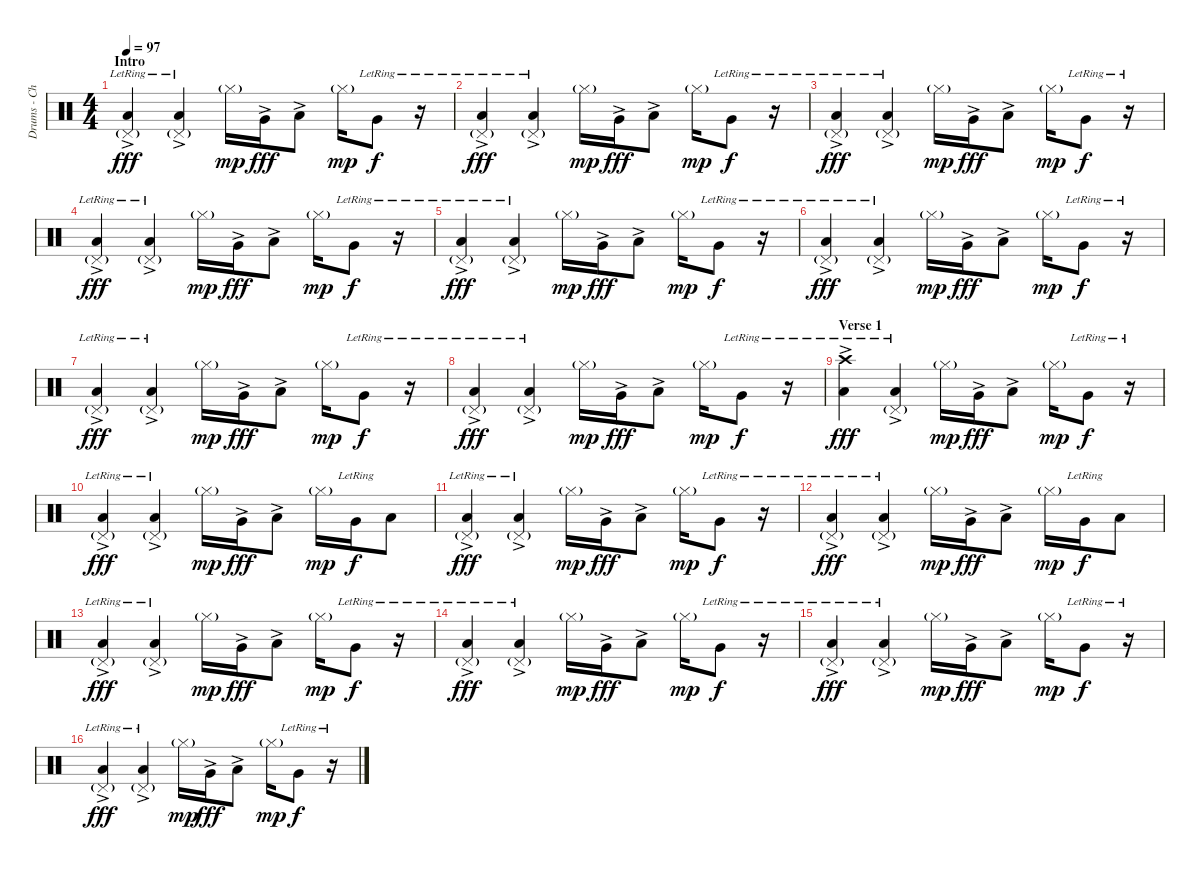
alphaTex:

\track ("Drums - Chad S" "Drums - Ch") {instrument percussion}
\staff {score}
\articulation defaults
\ts (4 4)
\section ("" "Intro")
\tempo 97
\clef neutral
\ks c
("Pedal Hi-Hat (hit)"{g} "Low Floor Tom (hit)"{ac lr}).4{dy fff} ("Pedal Hi-Hat (hit)"{g} "Low Floor Tom (hit)"{ac lr}).4 "Hi-Hat (closed)"{g}.16{dy mp} "Very Low Tom (hit)"{ac}.16{dy fff} "Low Floor Tom (hit)"{ac}.8 "Hi-Hat (closed)"{g}.16{dy mp} "Very Low Tom (hit)"{lr}.8{dy f} r.16 |
("Pedal Hi-Hat (hit)"{g} "Low Floor Tom (hit)"{ac lr}).4{dy fff} ("Pedal Hi-Hat (hit)"{g} "Low Floor Tom (hit)"{ac lr}).4 "Hi-Hat (closed)"{g}.16{dy mp} "Very Low Tom (hit)"{ac}.16{dy fff} "Low Floor Tom (hit)"{ac}.8 "Hi-Hat (closed)"{g}.16{dy mp} "Very Low Tom (hit)"{lr}.8{dy f} r.16 |
("Pedal Hi-Hat (hit)"{g} "Low Floor Tom (hit)"{ac lr}).4{dy fff} ("Pedal Hi-Hat (hit)"{g} "Low Floor Tom (hit)"{ac lr}).4 "Hi-Hat (closed)"{g}.16{dy mp} "Very Low Tom (hit)"{ac}.16{dy fff} "Low Floor Tom (hit)"{ac}.8 "Hi-Hat (closed)"{g}.16{dy mp} "Very Low Tom (hit)"{lr}.8{dy f} r.16 |
("Pedal Hi-Hat (hit)"{g} "Low Floor Tom (hit)"{ac lr}).4{dy fff} ("Pedal Hi-Hat (hit)"{g} "Low Floor Tom (hit)"{ac lr}).4 "Hi-Hat (closed)"{g}.16{dy mp} "Very Low Tom (hit)"{ac}.16{dy fff} "Low Floor Tom (hit)"{ac}.8 "Hi-Hat (closed)"{g}.16{dy mp} "Very Low Tom (hit)"{lr}.8{dy f} r.16 |
("Pedal Hi-Hat (hit)"{g} "Low Floor Tom (hit)"{ac lr}).4{dy fff} ("Pedal Hi-Hat (hit)"{g} "Low Floor Tom (hit)"{ac lr}).4 "Hi-Hat (closed)"{g}.16{dy mp} "Very Low Tom (hit)"{ac}.16{dy fff} "Low Floor Tom (hit)"{ac}.8 "Hi-Hat (closed)"{g}.16{dy mp} "Very Low Tom (hit)"{lr}.8{dy f} r.16 |
("Pedal Hi-Hat (hit)"{g} "Low Floor Tom (hit)"{ac lr}).4{dy fff} ("Pedal Hi-Hat (hit)"{g} "Low Floor Tom (hit)"{ac lr}).4 "Hi-Hat (closed)"{g}.16{dy mp} "Very Low Tom (hit)"{ac}.16{dy fff} "Low Floor Tom (hit)"{ac}.8 "Hi-Hat (closed)"{g}.16{dy mp} "Very Low Tom (hit)"{lr}.8{dy f} r.16 |
("Pedal Hi-Hat (hit)"{g} "Low Floor Tom (hit)"{ac lr}).4{dy fff} ("Pedal Hi-Hat (hit)"{g} "Low Floor Tom (hit)"{ac lr}).4 "Hi-Hat (closed)"{g}.16{dy mp} "Very Low Tom (hit)"{ac}.16{dy fff} "Low Floor Tom (hit)"{ac}.8 "Hi-Hat (closed)"{g}.16{dy mp} "Very Low Tom (hit)"{lr}.8{dy f} r.16 |
("Pedal Hi-Hat (hit)"{g} "Low Floor Tom (hit)"{ac lr}).4{dy fff} ("Pedal Hi-Hat (hit)"{g} "Low Floor Tom (hit)"{ac lr}).4 "Hi-Hat (closed)"{g}.16{dy mp} "Very Low Tom (hit)"{ac}.16{dy fff} "Low Floor Tom (hit)"{ac}.8 "Hi-Hat (closed)"{g}.16{dy mp} "Very Low Tom (hit)"{lr}.8{dy f} r.16 |
\section ("" "Verse 1")
("Crash high (hit)"{ac} "Low Floor Tom (hit)"{ac lr}).4{dy fff} ("Pedal Hi-Hat (hit)"{g} "Low Floor Tom (hit)"{ac lr}).4 "Hi-Hat (closed)"{g}.16{dy mp} "Very Low Tom (hit)"{ac}.16{dy fff} "Low Floor Tom (hit)"{ac}.8 "Hi-Hat (closed)"{g}.16{dy mp} "Very Low Tom (hit)"{lr}.8{dy f} r.16 |
("Pedal Hi-Hat (hit)"{g} "Low Floor Tom (hit)"{ac lr}).4{dy fff} ("Pedal Hi-Hat (hit)"{g} "Low Floor Tom (hit)"{ac lr}).4 "Hi-Hat (closed)"{g}.16{dy mp} "Very Low Tom (hit)"{ac}.16{dy fff} "Low Floor Tom (hit)"{ac}.8 "Hi-Hat (closed)"{g}.16{dy mp} "Very Low Tom (hit)"{lr}.16{dy f} "Low Floor Tom (hit)".8 |
("Pedal Hi-Hat (hit)"{g} "Low Floor Tom (hit)"{ac lr}).4{dy fff} ("Pedal Hi-Hat (hit)"{g} "Low Floor Tom (hit)"{ac lr}).4 "Hi-Hat (closed)"{g}.16{dy mp} "Very Low Tom (hit)"{ac}.16{dy fff} "Low Floor Tom (hit)"{ac}.8 "Hi-Hat (closed)"{g}.16{dy mp} "Very Low Tom (hit)"{lr}.8{dy f} r.16 |
("Pedal Hi-Hat (hit)"{g} "Low Floor Tom (hit)"{ac lr}).4{dy fff} ("Pedal Hi-Hat (hit)"{g} "Low Floor Tom (hit)"{ac lr}).4 "Hi-Hat (closed)"{g}.16{dy mp} "Very Low Tom (hit)"{ac}.16{dy fff} "Low Floor Tom (hit)"{ac}.8 "Hi-Hat (closed)"{g}.16{dy mp} "Very Low Tom (hit)"{lr}.16{dy f} "Low Floor Tom (hit)".8 |
("Pedal Hi-Hat (hit)"{g} "Low Floor Tom (hit)"{ac lr}).4{dy fff} ("Pedal Hi-Hat (hit)"{g} "Low Floor Tom (hit)"{ac lr}).4 "Hi-Hat (closed)"{g}.16{dy mp} "Very Low Tom (hit)"{ac}.16{dy fff} "Low Floor Tom (hit)"{ac}.8 "Hi-Hat (closed)"{g}.16{dy mp} "Very Low Tom (hit)"{lr}.8{dy f} r.16 |
("Pedal Hi-Hat (hit)"{g} "Low Floor Tom (hit)"{ac lr}).4{dy fff} ("Pedal Hi-Hat (hit)"{g} "Low Floor Tom (hit)"{ac lr}).4 "Hi-Hat (closed)"{g}.16{dy mp} "Very Low Tom (hit)"{ac}.16{dy fff} "Low Floor Tom (hit)"{ac}.8 "Hi-Hat (closed)"{g}.16{dy mp} "Very Low Tom (hit)"{lr}.8{dy f} r.16 |
("Pedal Hi-Hat (hit)"{g} "Low Floor Tom (hit)"{ac lr}).4{dy fff} ("Pedal Hi-Hat (hit)"{g} "Low Floor Tom (hit)"{ac lr}).4 "Hi-Hat (closed)"{g}.16{dy mp} "Very Low Tom (hit)"{ac}.16{dy fff} "Low Floor Tom (hit)"{ac}.8 "Hi-Hat (closed)"{g}.16{dy mp} "Very Low Tom (hit)"{lr}.8{dy f} r.16 |
("Pedal Hi-Hat (hit)"{g} "Low Floor Tom (hit)"{ac lr}).4{dy fff} ("Pedal Hi-Hat (hit)"{g} "Low Floor Tom (hit)"{ac lr}).4 "Hi-Hat (closed)"{g}.16{dy mp} "Very Low Tom (hit)"{ac}.16{dy fff} "Low Floor Tom (hit)"{ac}.8 "Hi-Hat (closed)"{g}.16{dy mp} "Very Low Tom (hit)"{lr}.8{dy f} r.16
